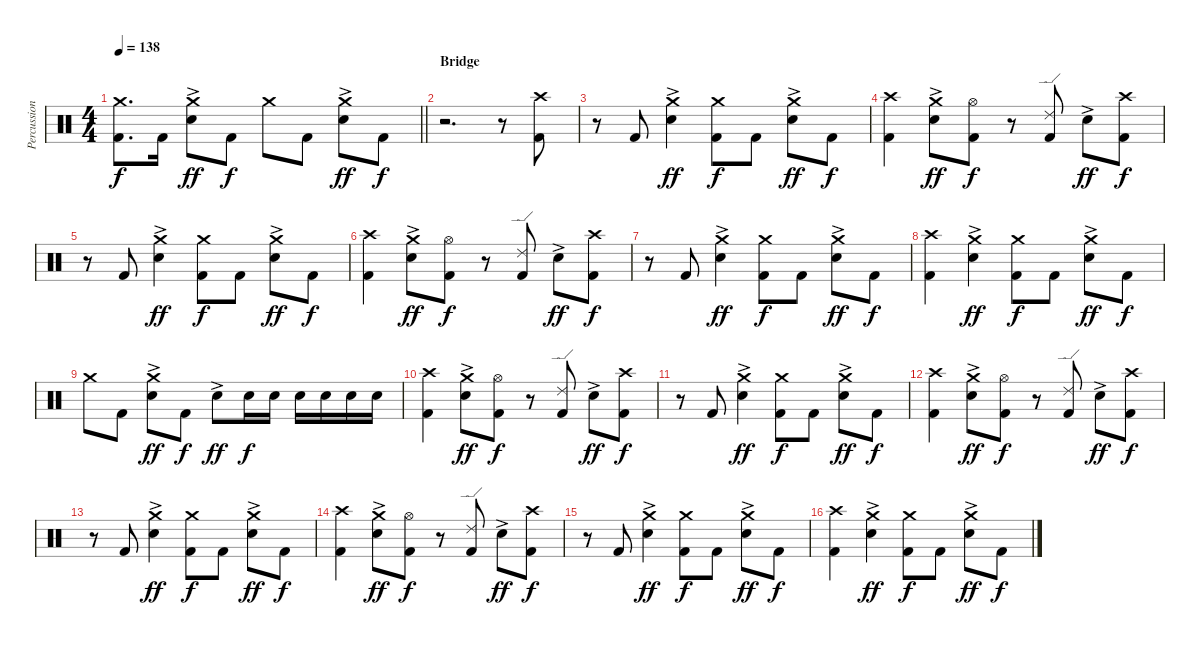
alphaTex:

\track ("Percussion" "Percussion") {instrument percussion}
\staff {score}
\articulation defaults
\ts (4 4)
\tempo 138
\clef neutral
\barLineRight lightlight
\ks c
("Crash medium (hit)" "Kick (hit) 2").8{d dy f} "Kick (hit) 2".16 ("Crash medium (hit)" "Electric Snare (hit)"{ac}).8{dy ff} "Kick (hit) 2".8{dy f} "Crash medium (hit)".8 "Kick (hit) 2".8 ("Crash medium (hit)" "Electric Snare (hit)"{ac}).8{dy ff} "Kick (hit) 2".8{dy f} |
\section ("" "Bridge")
r.2{d} r.8 ("Crash high (hit)" "Kick (hit) 2").8 |
r.8 "Kick (hit) 2".8 ("Crash medium (hit)" "Electric Snare (hit)"{ac}).4{dy ff} ("Crash medium (hit)" "Kick (hit) 2").8{dy f} "Kick (hit) 2".8 ("Crash medium (hit)" "Electric Snare (hit)"{ac}).8{dy ff} "Kick (hit) 2".8{dy f} |
("Crash high (hit)" "Kick (hit) 2").4 ("Crash medium (hit)" "Electric Snare (hit)"{ac}).8{dy ff} ("Hi-Hat (open)" "Kick (hit) 2").8{dy f} r.8 ("Ride (edge) 2" "Kick (hit) 2").8 "Electric Snare (hit)"{ac}.8{dy ff} ("Crash high (hit)" "Kick (hit) 2").8{dy f} |
r.8 "Kick (hit) 2".8 ("Crash medium (hit)" "Electric Snare (hit)"{ac}).4{dy ff} ("Crash medium (hit)" "Kick (hit) 2").8{dy f} "Kick (hit) 2".8 ("Crash medium (hit)" "Electric Snare (hit)"{ac}).8{dy ff} "Kick (hit) 2".8{dy f} |
("Crash high (hit)" "Kick (hit) 2").4 ("Crash medium (hit)" "Electric Snare (hit)"{ac}).8{dy ff} ("Hi-Hat (open)" "Kick (hit) 2").8{dy f} r.8 ("Ride (edge) 2" "Kick (hit) 2").8 "Electric Snare (hit)"{ac}.8{dy ff} ("Crash high (hit)" "Kick (hit) 2").8{dy f} |
r.8 "Kick (hit) 2".8 ("Crash medium (hit)" "Electric Snare (hit)"{ac}).4{dy ff} ("Crash medium (hit)" "Kick (hit) 2").8{dy f} "Kick (hit) 2".8 ("Crash medium (hit)" "Electric Snare (hit)"{ac}).8{dy ff} "Kick (hit) 2".8{dy f} |
("Crash high (hit)" "Kick (hit) 2").4 ("Crash medium (hit)" "Electric Snare (hit)"{ac}).4{dy ff} ("Crash medium (hit)" "Kick (hit) 2").8{dy f} "Kick (hit) 2".8 ("Crash medium (hit)" "Electric Snare (hit)"{ac}).8{dy ff} "Kick (hit) 2".8{dy f} |
"Crash medium (hit)".8 "Kick (hit) 2".8 ("Crash medium (hit)" "Electric Snare (hit)"{ac}).8{dy ff} "Kick (hit) 2".8{dy f} "Electric Snare (hit)"{ac}.8{dy ff} "Electric Snare (hit)".16{dy f} "Electric Snare (hit)".16 "Electric Snare (hit)".16 "Electric Snare (hit)".16 "Electric Snare (hit)".16 "Electric Snare (hit)".16 |
("Crash high (hit)" "Kick (hit) 2").4 ("Crash medium (hit)" "Electric Snare (hit)"{ac}).8{dy ff} ("Hi-Hat (open)" "Kick (hit) 2").8{dy f} r.8 ("Ride (edge) 2" "Kick (hit) 2").8 "Electric Snare (hit)"{ac}.8{dy ff} ("Crash high (hit)" "Kick (hit) 2").8{dy f} |
r.8 "Kick (hit) 2".8 ("Crash medium (hit)" "Electric Snare (hit)"{ac}).4{dy ff} ("Crash medium (hit)" "Kick (hit) 2").8{dy f} "Kick (hit) 2".8 ("Crash medium (hit)" "Electric Snare (hit)"{ac}).8{dy ff} "Kick (hit) 2".8{dy f} |
("Crash high (hit)" "Kick (hit) 2").4 ("Crash medium (hit)" "Electric Snare (hit)"{ac}).8{dy ff} ("Hi-Hat (open)" "Kick (hit) 2").8{dy f} r.8 ("Ride (edge) 2" "Kick (hit) 2").8 "Electric Snare (hit)"{ac}.8{dy ff} ("Crash high (hit)" "Kick (hit) 2").8{dy f} |
r.8 "Kick (hit) 2".8 ("Crash medium (hit)" "Electric Snare (hit)"{ac}).4{dy ff} ("Crash medium (hit)" "Kick (hit) 2").8{dy f} "Kick (hit) 2".8 ("Crash medium (hit)" "Electric Snare (hit)"{ac}).8{dy ff} "Kick (hit) 2".8{dy f} |
("Crash high (hit)" "Kick (hit) 2").4 ("Crash medium (hit)" "Electric Snare (hit)"{ac}).8{dy ff} ("Hi-Hat (open)" "Kick (hit) 2").8{dy f} r.8 ("Ride (edge) 2" "Kick (hit) 2").8 "Electric Snare (hit)"{ac}.8{dy ff} ("Crash high (hit)" "Kick (hit) 2").8{dy f} |
r.8 "Kick (hit) 2".8 ("Crash medium (hit)" "Electric Snare (hit)"{ac}).4{dy ff} ("Crash medium (hit)" "Kick (hit) 2").8{dy f} "Kick (hit) 2".8 ("Crash medium (hit)" "Electric Snare (hit)"{ac}).8{dy ff} "Kick (hit) 2".8{dy f} |
("Crash high (hit)" "Kick (hit) 2").4 ("Crash medium (hit)" "Electric Snare (hit)"{ac}).4{dy ff} ("Crash medium (hit)" "Kick (hit) 2").8{dy f} "Kick (hit) 2".8 ("Crash medium (hit)" "Electric Snare (hit)"{ac}).8{dy ff} "Kick (hit) 2".8{dy f}
